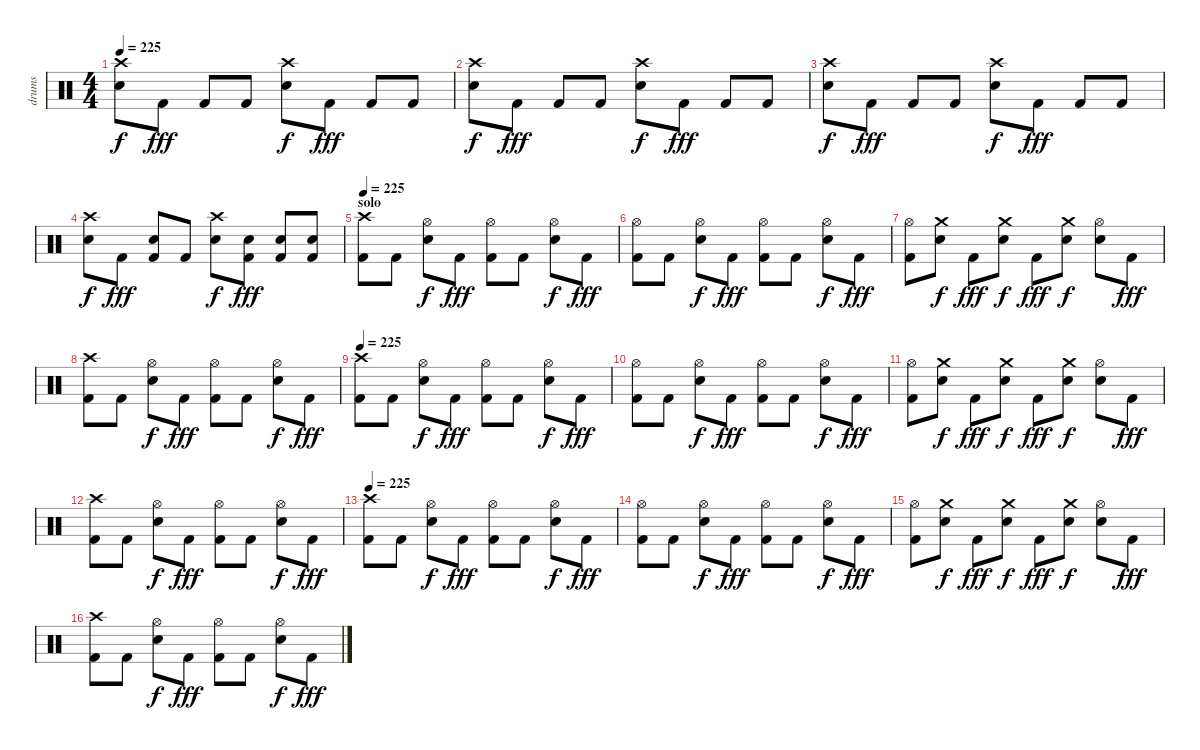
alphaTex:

\track ("drums" "drums") {instrument percussion}
\staff {score}
\articulation defaults
\ts (4 4)
\tempo 225
\clef neutral
\ks c
("Crash high (hit)" "Snare (hit) 2").8{dy f} "Kick (hit) 2".8{dy fff} "Kick (hit) 2".8 "Kick (hit) 2".8 ("Crash high (hit)" "Snare (hit) 2").8{dy f} "Kick (hit) 2".8{dy fff} "Kick (hit) 2".8 "Kick (hit) 2".8 |
("Crash high (hit)" "Snare (hit) 2").8{dy f} "Kick (hit) 2".8{dy fff} "Kick (hit) 2".8 "Kick (hit) 2".8 ("Crash high (hit)" "Snare (hit) 2").8{dy f} "Kick (hit) 2".8{dy fff} "Kick (hit) 2".8 "Kick (hit) 2".8 |
("Crash high (hit)" "Snare (hit) 2").8{dy f} "Kick (hit) 2".8{dy fff} "Kick (hit) 2".8 "Kick (hit) 2".8 ("Crash high (hit)" "Snare (hit) 2").8{dy f} "Kick (hit) 2".8{dy fff} "Kick (hit) 2".8 "Kick (hit) 2".8 |
("Crash high (hit)" "Snare (hit) 2").8{dy f} "Kick (hit) 2".8{dy fff} ("Snare (hit) 2" "Kick (hit) 2").8 "Kick (hit) 2".8 ("Crash high (hit)" "Snare (hit) 2").8{dy f} ("Snare (hit) 2" "Kick (hit) 2").8{dy fff} ("Snare (hit) 2" "Kick (hit) 2").8 ("Snare (hit) 2" "Kick (hit) 2").8 |
\section ("" "solo")
\tempo 225
("Crash high (hit)" "Kick (hit) 2").8 "Kick (hit) 2".8 ("Hi-Hat (open)" "Snare (hit) 2").8{dy f} "Kick (hit) 2".8{dy fff} ("Hi-Hat (open)" "Kick (hit) 2").8 "Kick (hit) 2".8 ("Hi-Hat (open)" "Snare (hit) 2").8{dy f} "Kick (hit) 2".8{dy fff} |
("Hi-Hat (open)" "Kick (hit) 2").8 "Kick (hit) 2".8 ("Hi-Hat (open)" "Snare (hit) 2").8{dy f} "Kick (hit) 2".8{dy fff} ("Hi-Hat (open)" "Kick (hit) 2").8 "Kick (hit) 2".8 ("Hi-Hat (open)" "Snare (hit) 2").8{dy f} "Kick (hit) 2".8{dy fff} |
("Hi-Hat (open)" "Kick (hit) 2").8 ("Crash medium (hit)" "Snare (hit) 2").8{dy f} "Kick (hit) 2".8{dy fff} ("Crash medium (hit)" "Snare (hit) 2").8{dy f} "Kick (hit) 2".8{dy fff} ("Crash medium (hit)" "Snare (hit) 2").8{dy f} ("Hi-Hat (open)" "Snare (hit) 2").8 "Kick (hit) 2".8{dy fff} |
("Crash high (hit)" "Kick (hit) 2").8 "Kick (hit) 2".8 ("Hi-Hat (open)" "Snare (hit) 2").8{dy f} "Kick (hit) 2".8{dy fff} ("Hi-Hat (open)" "Kick (hit) 2").8 "Kick (hit) 2".8 ("Hi-Hat (open)" "Snare (hit) 2").8{dy f} "Kick (hit) 2".8{dy fff} |
\tempo 225
("Crash high (hit)" "Kick (hit) 2").8 "Kick (hit) 2".8 ("Hi-Hat (open)" "Snare (hit) 2").8{dy f} "Kick (hit) 2".8{dy fff} ("Hi-Hat (open)" "Kick (hit) 2").8 "Kick (hit) 2".8 ("Hi-Hat (open)" "Snare (hit) 2").8{dy f} "Kick (hit) 2".8{dy fff} |
("Hi-Hat (open)" "Kick (hit) 2").8 "Kick (hit) 2".8 ("Hi-Hat (open)" "Snare (hit) 2").8{dy f} "Kick (hit) 2".8{dy fff} ("Hi-Hat (open)" "Kick (hit) 2").8 "Kick (hit) 2".8 ("Hi-Hat (open)" "Snare (hit) 2").8{dy f} "Kick (hit) 2".8{dy fff} |
("Hi-Hat (open)" "Kick (hit) 2").8 ("Crash medium (hit)" "Snare (hit) 2").8{dy f} "Kick (hit) 2".8{dy fff} ("Crash medium (hit)" "Snare (hit) 2").8{dy f} "Kick (hit) 2".8{dy fff} ("Crash medium (hit)" "Snare (hit) 2").8{dy f} ("Hi-Hat (open)" "Snare (hit) 2").8 "Kick (hit) 2".8{dy fff} |
("Crash high (hit)" "Kick (hit) 2").8 "Kick (hit) 2".8 ("Hi-Hat (open)" "Snare (hit) 2").8{dy f} "Kick (hit) 2".8{dy fff} ("Hi-Hat (open)" "Kick (hit) 2").8 "Kick (hit) 2".8 ("Hi-Hat (open)" "Snare (hit) 2").8{dy f} "Kick (hit) 2".8{dy fff} |
\tempo 225
("Crash high (hit)" "Kick (hit) 2").8 "Kick (hit) 2".8 ("Hi-Hat (open)" "Snare (hit) 2").8{dy f} "Kick (hit) 2".8{dy fff} ("Hi-Hat (open)" "Kick (hit) 2").8 "Kick (hit) 2".8 ("Hi-Hat (open)" "Snare (hit) 2").8{dy f} "Kick (hit) 2".8{dy fff} |
("Hi-Hat (open)" "Kick (hit) 2").8 "Kick (hit) 2".8 ("Hi-Hat (open)" "Snare (hit) 2").8{dy f} "Kick (hit) 2".8{dy fff} ("Hi-Hat (open)" "Kick (hit) 2").8 "Kick (hit) 2".8 ("Hi-Hat (open)" "Snare (hit) 2").8{dy f} "Kick (hit) 2".8{dy fff} |
("Hi-Hat (open)" "Kick (hit) 2").8 ("Crash medium (hit)" "Snare (hit) 2").8{dy f} "Kick (hit) 2".8{dy fff} ("Crash medium (hit)" "Snare (hit) 2").8{dy f} "Kick (hit) 2".8{dy fff} ("Crash medium (hit)" "Snare (hit) 2").8{dy f} ("Hi-Hat (open)" "Snare (hit) 2").8 "Kick (hit) 2".8{dy fff} |
("Crash high (hit)" "Kick (hit) 2").8 "Kick (hit) 2".8 ("Hi-Hat (open)" "Snare (hit) 2").8{dy f} "Kick (hit) 2".8{dy fff} ("Hi-Hat (open)" "Kick (hit) 2").8 "Kick (hit) 2".8 ("Hi-Hat (open)" "Snare (hit) 2").8{dy f} "Kick (hit) 2".8{dy fff}
